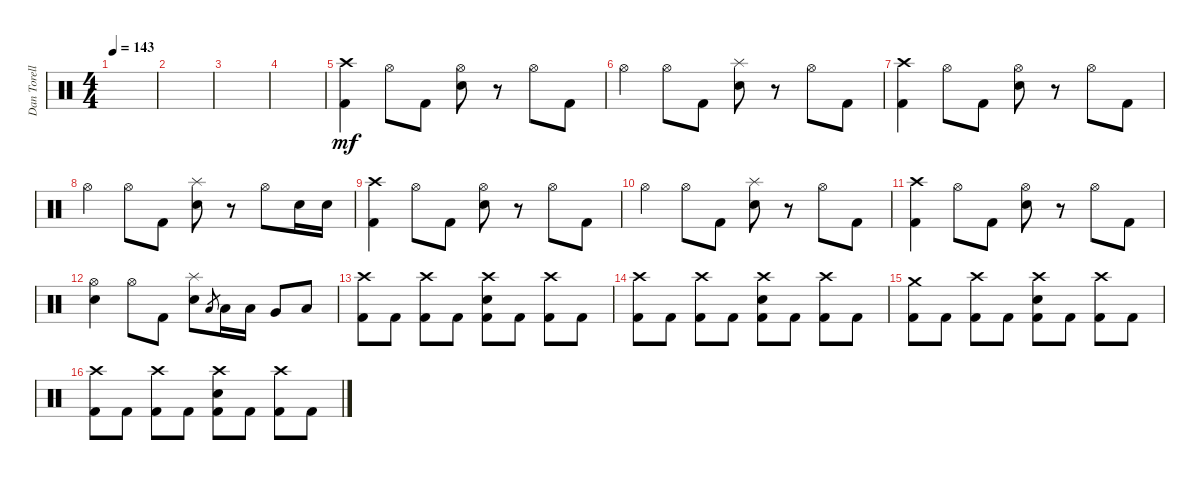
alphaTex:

\track ("Dan Torelli" "Dan Torell") {instrument percussion}
\staff {score}
\articulation defaults
\ts (4 4)
\tempo 143
\clef neutral
\ks c
|
|
|
|
("Crash high (hit)" "Kick (hit) 2").4{dy mf} "Hi-Hat (open)".8 "Kick (hit) 2".8 ("Hi-Hat (open)" "Snare (hit) 2").8 r.8 "Hi-Hat (open)".8 "Kick (hit) 2".8 |
"Hi-Hat (open)".4 "Hi-Hat (open)".8 "Kick (hit) 2".8 ("Splash (hit)" "Snare (hit) 2").8 r.8 "Hi-Hat (open)".8 "Kick (hit) 2".8 |
("Crash high (hit)" "Kick (hit) 2").4 "Hi-Hat (open)".8 "Kick (hit) 2".8 ("Hi-Hat (open)" "Snare (hit) 2").8 r.8 "Hi-Hat (open)".8 "Kick (hit) 2".8 |
"Hi-Hat (open)".4 "Hi-Hat (open)".8 "Kick (hit) 2".8 ("Splash (hit)" "Snare (hit) 2").8 r.8 "Hi-Hat (open)".8 "Snare (hit) 2".16 "Snare (hit) 2".16 |
("Crash high (hit)" "Kick (hit) 2").4 "Hi-Hat (open)".8 "Kick (hit) 2".8 ("Hi-Hat (open)" "Snare (hit) 2").8 r.8 "Hi-Hat (open)".8 "Kick (hit) 2".8 |
"Hi-Hat (open)".4 "Hi-Hat (open)".8 "Kick (hit) 2".8 ("Splash (hit)" "Snare (hit) 2").8 r.8 "Hi-Hat (open)".8 "Kick (hit) 2".8 |
("Crash high (hit)" "Kick (hit) 2").4 "Hi-Hat (open)".8 "Kick (hit) 2".8 ("Hi-Hat (open)" "Snare (hit) 2").8 r.8 "Hi-Hat (open)".8 "Kick (hit) 2".8 |
("Hi-Hat (open)" "Snare (hit) 2").4 "Hi-Hat (open)".8 "Kick (hit) 2".8 ("Splash (hit)" "Snare (hit) 2").8 "Low Tom (hit)".8{gr} "Low Tom (hit)".16 "Low Tom (hit)".16 "Very Low Tom (hit)".8 "Low Floor Tom (hit)".8 |
("Crash high (hit)" "Kick (hit) 2").8 "Kick (hit) 2".8 ("Crash high (hit)" "Kick (hit) 2").8 "Kick (hit) 2".8 ("Crash high (hit)" "Snare (hit) 2" "Kick (hit) 2").8 "Kick (hit) 2".8 ("Crash high (hit)" "Kick (hit) 2").8 "Kick (hit) 2".8 |
("Crash high (hit)" "Kick (hit) 2").8 "Kick (hit) 2".8 ("Crash high (hit)" "Kick (hit) 2").8 "Kick (hit) 2".8 ("Crash high (hit)" "Snare (hit) 2" "Kick (hit) 2").8 "Kick (hit) 2".8 ("Crash high (hit)" "Kick (hit) 2").8 "Kick (hit) 2".8 |
("Crash medium (hit)" "Kick (hit) 2").8 "Kick (hit) 2".8 ("Crash high (hit)" "Kick (hit) 2").8 "Kick (hit) 2".8 ("Crash high (hit)" "Snare (hit) 2" "Kick (hit) 2").8 "Kick (hit) 2".8 ("Crash high (hit)" "Kick (hit) 2").8 "Kick (hit) 2".8 |
("Crash high (hit)" "Kick (hit) 2").8 "Kick (hit) 2".8 ("Crash high (hit)" "Kick (hit) 2").8 "Kick (hit) 2".8 ("Crash high (hit)" "Snare (hit) 2" "Kick (hit) 2").8 "Kick (hit) 2".8 ("Crash high (hit)" "Kick (hit) 2").8 "Kick (hit) 2".8
